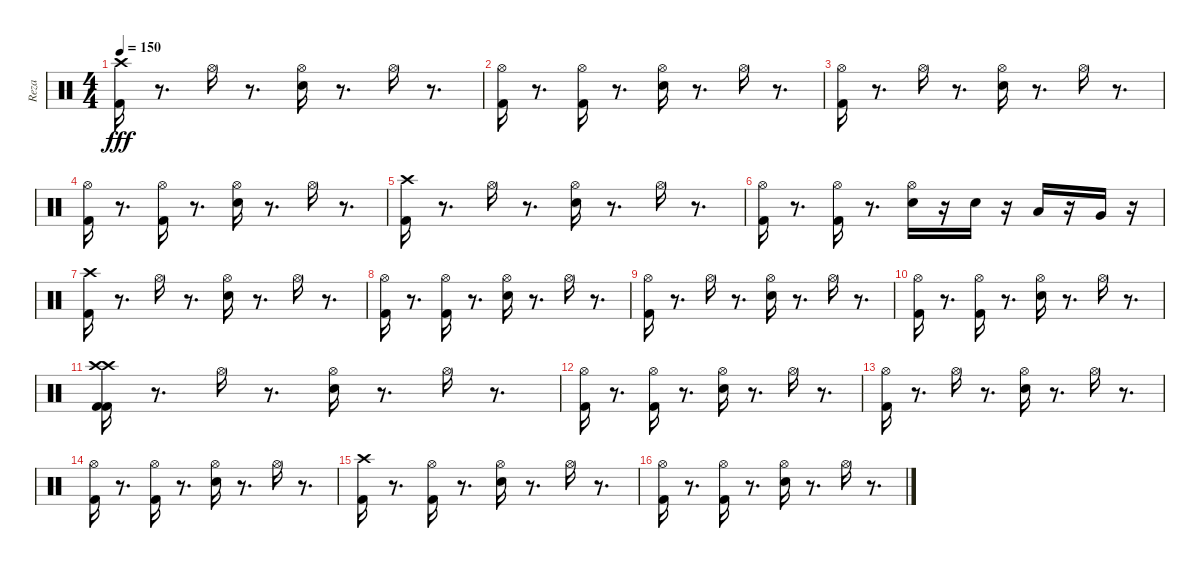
\track ("Reza" "Reza") {instrument percussion}
\staff {score}
\articulation defaults
\ts (4 4)
\tempo 150
\clef neutral
\ks c
("Crash high (hit)" "Kick (hit) 2").16{dy fff} r.8{d} "Hi-Hat (open)".16 r.8{d} ("Snare (hit) 2" "Hi-Hat (open)").16 r.8{d} "Hi-Hat (open)".16 r.8{d} |
("Kick (hit) 2" "Hi-Hat (open)").16 r.8{d} ("Kick (hit) 2" "Hi-Hat (open)").16 r.8{d} ("Snare (hit) 2" "Hi-Hat (open)").16 r.8{d} "Hi-Hat (open)".16 r.8{d} |
("Kick (hit) 2" "Hi-Hat (open)").16 r.8{d} "Hi-Hat (open)".16 r.8{d} ("Snare (hit) 2" "Hi-Hat (open)").16 r.8{d} "Hi-Hat (open)".16 r.8{d} |
("Kick (hit) 2" "Hi-Hat (open)").16 r.8{d} ("Kick (hit) 2" "Hi-Hat (open)").16 r.8{d} ("Hi-Hat (open)" "Snare (hit) 2").16 r.8{d} "Hi-Hat (open)".16 r.8{d} |
("Kick (hit) 2" "Crash high (hit)").16 r.8{d} "Hi-Hat (open)".16 r.8{d} ("Snare (hit) 2" "Hi-Hat (open)").16 r.8{d} "Hi-Hat (open)".16 r.8{d} |
("Kick (hit) 2" "Hi-Hat (open)").16 r.8{d} ("Kick (hit) 2" "Hi-Hat (open)").16 r.8{d} ("Snare (hit) 2" "Hi-Hat (open)").16 r.16 "Snare (hit) 2".16 r.16 "Low Tom (hit)".16 r.16 "Very Low Tom (hit)".16 r.16 |
("Crash high (hit)" "Kick (hit) 2").16 r.8{d} "Hi-Hat (open)".16 r.8{d} ("Snare (hit) 2" "Hi-Hat (open)").16 r.8{d} "Hi-Hat (open)".16 r.8{d} |
("Hi-Hat (open)" "Kick (hit) 2").16 r.8{d} ("Hi-Hat (open)" "Kick (hit) 2").16 r.8{d} ("Snare (hit) 2" "Hi-Hat (open)").16 r.8{d} "Hi-Hat (open)".16 r.8{d} |
("Kick (hit) 2" "Hi-Hat (open)").16 r.8{d} "Hi-Hat (open)".16 r.8{d} ("Snare (hit) 2" "Hi-Hat (open)").16 r.8{d} "Hi-Hat (open)".16 r.8{d} |
("Kick (hit) 2" "Hi-Hat (open)").16 r.8{d} ("Kick (hit) 2" "Hi-Hat (open)").16 r.8{d} ("Snare (hit) 2" "Hi-Hat (open)").16 r.8{d} "Hi-Hat (open)".16 r.8{d} |
("Kick (hit) 2" "Crash high (hit)" "Crash high (hit)" "Kick (hit) 2").16 r.8{d} "Hi-Hat (open)".16 r.8{d} ("Snare (hit) 2" "Hi-Hat (open)").16 r.8{d} "Hi-Hat (open)".16 r.8{d} |
("Hi-Hat (open)" "Kick (hit) 2").16 r.8{d} ("Hi-Hat (open)" "Kick (hit) 2").16 r.8{d} ("Snare (hit) 2" "Hi-Hat (open)").16 r.8{d} "Hi-Hat (open)".16 r.8{d} |
("Kick (hit) 2" "Hi-Hat (open)").16 r.8{d} "Hi-Hat (open)".16 r.8{d} ("Snare (hit) 2" "Hi-Hat (open)").16 r.8{d} "Hi-Hat (open)".16 r.8{d} |
("Kick (hit) 2" "Hi-Hat (open)").16 r.8{d} ("Kick (hit) 2" "Hi-Hat (open)").16 r.8{d} ("Snare (hit) 2" "Hi-Hat (open)").16 r.8{d} "Hi-Hat (open)".16 r.8{d} |
("Crash high (hit)" "Kick (hit) 2").16 r.8{d} ("Hi-Hat (open)" "Kick (hit) 2").16 r.8{d} ("Snare (hit) 2" "Hi-Hat (open)").16 r.8{d} "Hi-Hat (open)".16 r.8{d} |
("Kick (hit) 2" "Hi-Hat (open)").16 r.8{d} ("Kick (hit) 2" "Hi-Hat (open)").16 r.8{d} ("Snare (hit) 2" "Hi-Hat (open)").16 r.8{d} "Hi-Hat (open)".16 r.8{d}
